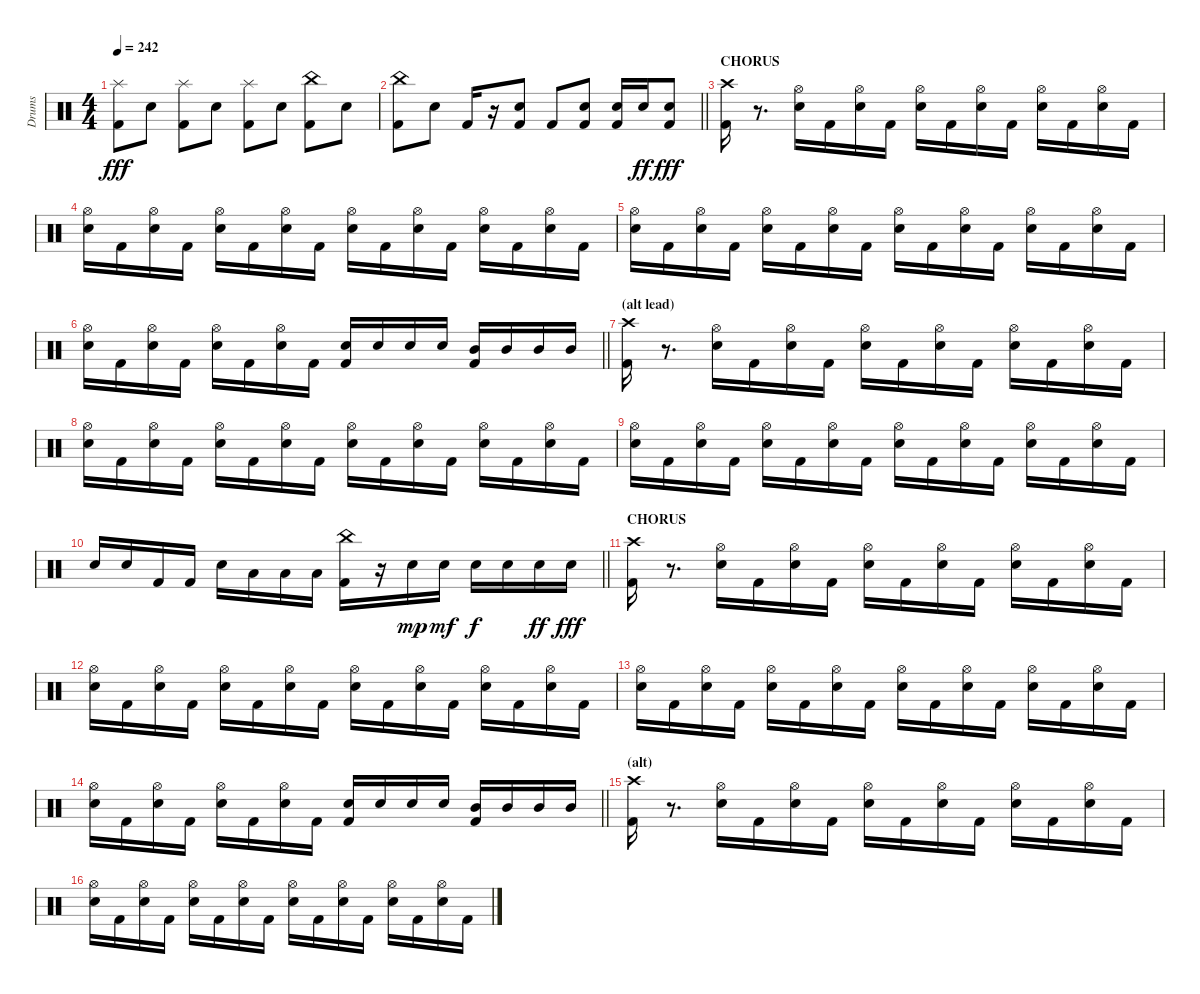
\track ("Drums" "Drums") {instrument percussion}
\staff {score}
\articulation defaults
\ts (4 4)
\tempo 242
\clef neutral
\ks c
("Kick (hit) 2" "Splash (hit)").8{dy fff} "Snare (hit) 2".8 ("Kick (hit) 2" "Splash (hit)").8 "Snare (hit) 2".8 ("Kick (hit) 2" "Splash (hit)").8 "Snare (hit) 2".8 ("Kick (hit) 2" "China (hit)").8 "Snare (hit) 2".8 |
\barLineRight lightlight
("Kick (hit) 2" "China (hit)").8 "Snare (hit) 2".8 "Kick (hit) 2".16 r.16 ("Kick (hit) 2" "Snare (hit) 2").8 "Kick (hit) 2".8 ("Kick (hit) 2" "Snare (hit) 2").8 ("Kick (hit) 2" "Snare (hit) 2").16 "Snare (hit) 2".16{dy ff} ("Kick (hit) 2" "Snare (hit) 2").8{dy fff} |
\section ("" "CHORUS")
("Kick (hit) 2" "Crash high (hit)").16 r.8{d} ("Snare (hit) 2" "Hi-Hat (open)").16 "Kick (hit) 2".16 ("Snare (hit) 2" "Hi-Hat (open)").16 "Kick (hit) 2".16 ("Snare (hit) 2" "Hi-Hat (open)").16 "Kick (hit) 2".16 ("Snare (hit) 2" "Hi-Hat (open)").16 "Kick (hit) 2".16 ("Snare (hit) 2" "Hi-Hat (open)").16 "Kick (hit) 2".16 ("Snare (hit) 2" "Hi-Hat (open)").16 "Kick (hit) 2".16 |
("Snare (hit) 2" "Hi-Hat (open)").16 "Kick (hit) 2".16 ("Snare (hit) 2" "Hi-Hat (open)").16 "Kick (hit) 2".16 ("Snare (hit) 2" "Hi-Hat (open)").16 "Kick (hit) 2".16 ("Snare (hit) 2" "Hi-Hat (open)").16 "Kick (hit) 2".16 ("Snare (hit) 2" "Hi-Hat (open)").16 "Kick (hit) 2".16 ("Snare (hit) 2" "Hi-Hat (open)").16 "Kick (hit) 2".16 ("Snare (hit) 2" "Hi-Hat (open)").16 "Kick (hit) 2".16 ("Snare (hit) 2" "Hi-Hat (open)").16 "Kick (hit) 2".16 |
("Snare (hit) 2" "Hi-Hat (open)").16 "Kick (hit) 2".16 ("Snare (hit) 2" "Hi-Hat (open)").16 "Kick (hit) 2".16 ("Snare (hit) 2" "Hi-Hat (open)").16 "Kick (hit) 2".16 ("Snare (hit) 2" "Hi-Hat (open)").16 "Kick (hit) 2".16 ("Snare (hit) 2" "Hi-Hat (open)").16 "Kick (hit) 2".16 ("Snare (hit) 2" "Hi-Hat (open)").16 "Kick (hit) 2".16 ("Snare (hit) 2" "Hi-Hat (open)").16 "Kick (hit) 2".16 ("Snare (hit) 2" "Hi-Hat (open)").16 "Kick (hit) 2".16 |
\barLineRight lightlight
("Snare (hit) 2" "Hi-Hat (open)").16 "Kick (hit) 2".16 ("Snare (hit) 2" "Hi-Hat (open)").16 "Kick (hit) 2".16 ("Snare (hit) 2" "Hi-Hat (open)").16 "Kick (hit) 2".16 ("Snare (hit) 2" "Hi-Hat (open)").16 "Kick (hit) 2".16 ("Kick (hit) 2" "Snare (hit) 2").16 "Snare (hit) 2".16 "Snare (hit) 2".16 "Snare (hit) 2".16 ("Kick (hit) 2" "Mid Tom (hit)").16 "Mid Tom (hit)".16 "Mid Tom (hit)".16 "Mid Tom (hit)".16 |
\section ("" "(alt lead)")
("Kick (hit) 2" "Crash high (hit)").16 r.8{d} ("Snare (hit) 2" "Hi-Hat (open)").16 "Kick (hit) 2".16 ("Snare (hit) 2" "Hi-Hat (open)").16 "Kick (hit) 2".16 ("Snare (hit) 2" "Hi-Hat (open)").16 "Kick (hit) 2".16 ("Snare (hit) 2" "Hi-Hat (open)").16 "Kick (hit) 2".16 ("Snare (hit) 2" "Hi-Hat (open)").16 "Kick (hit) 2".16 ("Snare (hit) 2" "Hi-Hat (open)").16 "Kick (hit) 2".16 |
("Snare (hit) 2" "Hi-Hat (open)").16 "Kick (hit) 2".16 ("Snare (hit) 2" "Hi-Hat (open)").16 "Kick (hit) 2".16 ("Snare (hit) 2" "Hi-Hat (open)").16 "Kick (hit) 2".16 ("Snare (hit) 2" "Hi-Hat (open)").16 "Kick (hit) 2".16 ("Snare (hit) 2" "Hi-Hat (open)").16 "Kick (hit) 2".16 ("Snare (hit) 2" "Hi-Hat (open)").16 "Kick (hit) 2".16 ("Snare (hit) 2" "Hi-Hat (open)").16 "Kick (hit) 2".16 ("Snare (hit) 2" "Hi-Hat (open)").16 "Kick (hit) 2".16 |
("Snare (hit) 2" "Hi-Hat (open)").16 "Kick (hit) 2".16 ("Snare (hit) 2" "Hi-Hat (open)").16 "Kick (hit) 2".16 ("Snare (hit) 2" "Hi-Hat (open)").16 "Kick (hit) 2".16 ("Snare (hit) 2" "Hi-Hat (open)").16 "Kick (hit) 2".16 ("Snare (hit) 2" "Hi-Hat (open)").16 "Kick (hit) 2".16 ("Snare (hit) 2" "Hi-Hat (open)").16 "Kick (hit) 2".16 ("Snare (hit) 2" "Hi-Hat (open)").16 "Kick (hit) 2".16 ("Snare (hit) 2" "Hi-Hat (open)").16 "Kick (hit) 2".16 |
\barLineRight lightlight "Snare (hit) 2".16 "Snare (hit) 2".16 "Kick (hit) 2".16 "Kick (hit) 2".16 "Snare (hit) 2".16 "Low Tom (hit)".16 "Low Tom (hit)".16 "Low Tom (hit)".16
("Kick (hit) 2" "China (hit)").16 r.16 "Snare (hit) 2".16{dy mp} "Snare (hit) 2".16{dy mf} "Snare (hit) 2".16{dy f} "Snare (hit) 2".16 "Snare (hit) 2".16{dy ff} "Snare (hit) 2".16{dy fff} |
\section ("" "CHORUS")
("Kick (hit) 2" "Crash high (hit)").16 r.8{d} ("Snare (hit) 2" "Hi-Hat (open)").16 "Kick (hit) 2".16 ("Snare (hit) 2" "Hi-Hat (open)").16 "Kick (hit) 2".16 ("Snare (hit) 2" "Hi-Hat (open)").16 "Kick (hit) 2".16 ("Snare (hit) 2" "Hi-Hat (open)").16 "Kick (hit) 2".16 ("Snare (hit) 2" "Hi-Hat (open)").16 "Kick (hit) 2".16 ("Snare (hit) 2" "Hi-Hat (open)").16 "Kick (hit) 2".16 |
("Snare (hit) 2" "Hi-Hat (open)").16 "Kick (hit) 2".16 ("Snare (hit) 2" "Hi-Hat (open)").16 "Kick (hit) 2".16 ("Snare (hit) 2" "Hi-Hat (open)").16 "Kick (hit) 2".16 ("Snare (hit) 2" "Hi-Hat (open)").16 "Kick (hit) 2".16 ("Snare (hit) 2" "Hi-Hat (open)").16 "Kick (hit) 2".16 ("Snare (hit) 2" "Hi-Hat (open)").16 "Kick (hit) 2".16 ("Snare (hit) 2" "Hi-Hat (open)").16 "Kick (hit) 2".16 ("Snare (hit) 2" "Hi-Hat (open)").16 "Kick (hit) 2".16 |
("Snare (hit) 2" "Hi-Hat (open)").16 "Kick (hit) 2".16 ("Snare (hit) 2" "Hi-Hat (open)").16 "Kick (hit) 2".16 ("Snare (hit) 2" "Hi-Hat (open)").16 "Kick (hit) 2".16 ("Snare (hit) 2" "Hi-Hat (open)").16 "Kick (hit) 2".16 ("Snare (hit) 2" "Hi-Hat (open)").16 "Kick (hit) 2".16 ("Snare (hit) 2" "Hi-Hat (open)").16 "Kick (hit) 2".16 ("Snare (hit) 2" "Hi-Hat (open)").16 "Kick (hit) 2".16 ("Snare (hit) 2" "Hi-Hat (open)").16 "Kick (hit) 2".16 |
\barLineRight lightlight
("Snare (hit) 2" "Hi-Hat (open)").16 "Kick (hit) 2".16 ("Snare (hit) 2" "Hi-Hat (open)").16 "Kick (hit) 2".16 ("Snare (hit) 2" "Hi-Hat (open)").16 "Kick (hit) 2".16 ("Snare (hit) 2" "Hi-Hat (open)").16 "Kick (hit) 2".16 ("Kick (hit) 2" "Snare (hit) 2").16 "Snare (hit) 2".16 "Snare (hit) 2".16 "Snare (hit) 2".16 ("Kick (hit) 2" "Mid Tom (hit)").16 "Mid Tom (hit)".16 "Mid Tom (hit)".16 "Mid Tom (hit)".16 |
\section ("" "(alt)")
("Kick (hit) 2" "Crash high (hit)").16 r.8{d} ("Snare (hit) 2" "Hi-Hat (open)").16 "Kick (hit) 2".16 ("Snare (hit) 2" "Hi-Hat (open)").16 "Kick (hit) 2".16 ("Snare (hit) 2" "Hi-Hat (open)").16 "Kick (hit) 2".16 ("Snare (hit) 2" "Hi-Hat (open)").16 "Kick (hit) 2".16 ("Snare (hit) 2" "Hi-Hat (open)").16 "Kick (hit) 2".16 ("Snare (hit) 2" "Hi-Hat (open)").16 "Kick (hit) 2".16 |
("Snare (hit) 2" "Hi-Hat (open)").16 "Kick (hit) 2".16 ("Snare (hit) 2" "Hi-Hat (open)").16 "Kick (hit) 2".16 ("Snare (hit) 2" "Hi-Hat (open)").16 "Kick (hit) 2".16 ("Snare (hit) 2" "Hi-Hat (open)").16 "Kick (hit) 2".16 ("Snare (hit) 2" "Hi-Hat (open)").16 "Kick (hit) 2".16 ("Snare (hit) 2" "Hi-Hat (open)").16 "Kick (hit) 2".16 ("Snare (hit) 2" "Hi-Hat (open)").16 "Kick (hit) 2".16 ("Snare (hit) 2" "Hi-Hat (open)").16 "Kick (hit) 2".16
